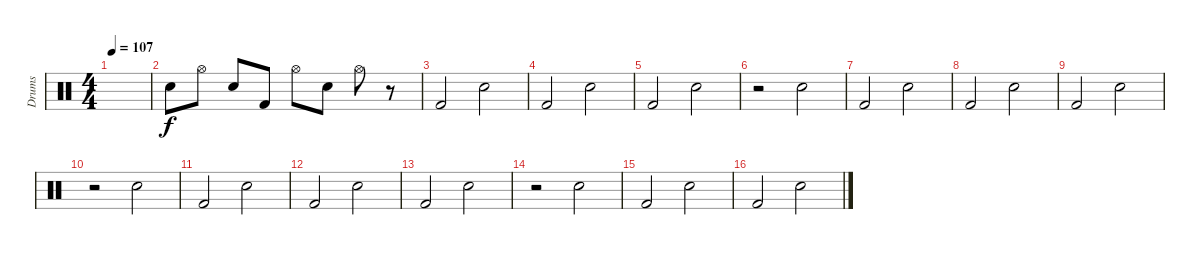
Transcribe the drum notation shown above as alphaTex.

\track ("Drums" "Drums") {instrument percussion}
\staff {score}
\articulation defaults
\ts (4 4)
\tempo 107
\clef neutral
\ks c
|
"Snare (hit) 2".8 "Hi-Hat (open)".8 "Snare (hit) 2".8 "Kick (hit) 2".8 "Hi-Hat (open)".8 "Snare (hit) 2".8 "Hi-Hat (open)".8 r.8 |
"Kick (hit) 2".2 "Snare (hit) 2".2 |
"Kick (hit) 2".2 "Snare (hit) 2".2 |
"Kick (hit) 2".2 "Snare (hit) 2".2 |
r.2 "Snare (hit) 2".2 |
"Kick (hit) 2".2 "Snare (hit) 2".2 |
"Kick (hit) 2".2 "Snare (hit) 2".2 |
"Kick (hit) 2".2 "Snare (hit) 2".2 |
r.2 "Snare (hit) 2".2 |
"Kick (hit) 2".2 "Snare (hit) 2".2 |
"Kick (hit) 2".2 "Snare (hit) 2".2 |
"Kick (hit) 2".2 "Snare (hit) 2".2 |
r.2 "Snare (hit) 2".2 |
"Kick (hit) 2".2 "Snare (hit) 2".2 |
"Kick (hit) 2".2 "Snare (hit) 2".2
